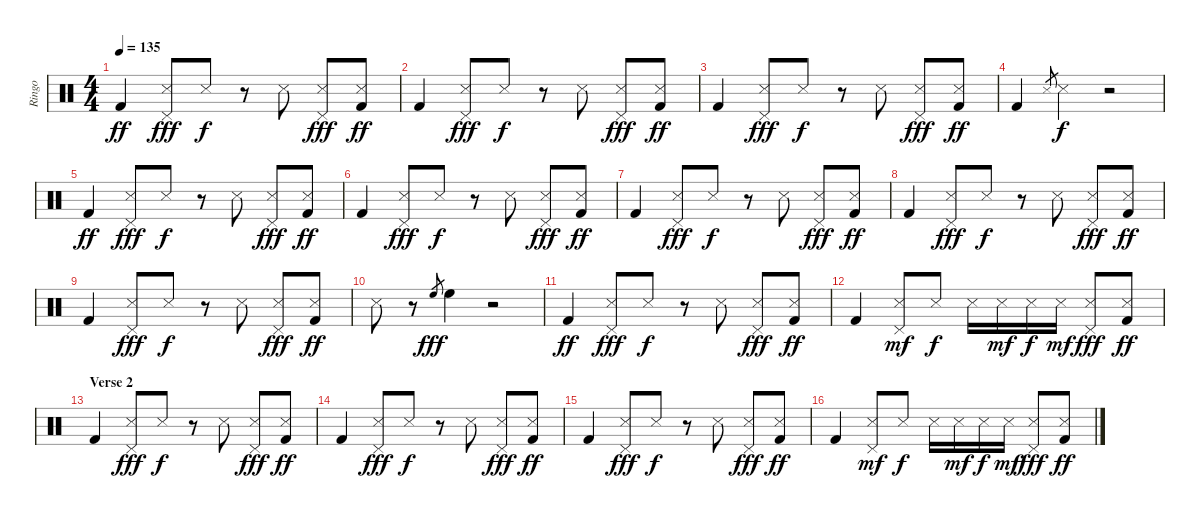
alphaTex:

\track ("Ringo" "Ringo") {instrument percussion}
\staff {score}
\articulation defaults
\ts (4 4)
\tempo 135
\clef neutral
\ks c "Kick (hit) 2".4{dy ff}
("Pedal Hi-Hat (hit)" "Snare (side stick) 3").8{dy fff} "Snare (side stick) 3".8{dy f} r.8 "Snare (side stick) 3".8 ("Pedal Hi-Hat (hit)" "Snare (side stick) 3").8{dy fff} ("Snare (side stick) 3" "Kick (hit) 2").8{dy ff} |
"Kick (hit) 2".4 ("Pedal Hi-Hat (hit)" "Snare (side stick) 3").8{dy fff} "Snare (side stick) 3".8{dy f} r.8 "Snare (side stick) 3".8 ("Pedal Hi-Hat (hit)" "Snare (side stick) 3").8{dy fff} ("Snare (side stick) 3" "Kick (hit) 2").8{dy ff} |
"Kick (hit) 2".4 ("Pedal Hi-Hat (hit)" "Snare (side stick) 3").8{dy fff} "Snare (side stick) 3".8{dy f} r.8 "Snare (side stick) 3".8 ("Pedal Hi-Hat (hit)" "Snare (side stick) 3").8{dy fff} ("Snare (side stick) 3" "Kick (hit) 2").8{dy ff} |
"Kick (hit) 2".4 "Snare (side stick) 3".8{gr} "Snare (side stick) 3".4{dy f} r.2 |
"Kick (hit) 2".4{dy ff} ("Pedal Hi-Hat (hit)" "Snare (side stick) 3").8{dy fff} "Snare (side stick) 3".8{dy f} r.8 "Snare (side stick) 3".8 ("Pedal Hi-Hat (hit)" "Snare (side stick) 3").8{dy fff} ("Snare (side stick) 3" "Kick (hit) 2").8{dy ff} |
"Kick (hit) 2".4 ("Pedal Hi-Hat (hit)" "Snare (side stick) 3").8{dy fff} "Snare (side stick) 3".8{dy f} r.8 "Snare (side stick) 3".8 ("Pedal Hi-Hat (hit)" "Snare (side stick) 3").8{dy fff} ("Snare (side stick) 3" "Kick (hit) 2").8{dy ff} |
"Kick (hit) 2".4 ("Pedal Hi-Hat (hit)" "Snare (side stick) 3").8{dy fff} "Snare (side stick) 3".8{dy f} r.8 "Snare (side stick) 3".8 ("Pedal Hi-Hat (hit)" "Snare (side stick) 3").8{dy fff} ("Snare (side stick) 3" "Kick (hit) 2").8{dy ff} |
"Kick (hit) 2".4 ("Pedal Hi-Hat (hit)" "Snare (side stick) 3").8{dy fff} "Snare (side stick) 3".8{dy f} r.8 "Snare (side stick) 3".8 ("Pedal Hi-Hat (hit)" "Snare (side stick) 3").8{dy fff} ("Snare (side stick) 3" "Kick (hit) 2").8{dy ff} |
"Kick (hit) 2".4 ("Pedal Hi-Hat (hit)" "Snare (side stick) 3").8{dy fff} "Snare (side stick) 3".8{dy f} r.8 "Snare (side stick) 3".8 ("Pedal Hi-Hat (hit)" "Snare (side stick) 3").8{dy fff} ("Snare (side stick) 3" "Kick (hit) 2").8{dy ff} |
"Snare (side stick) 3".8 r.8 "High Floor Tom (hit)".8{gr dy fff} "High Floor Tom (hit)".4 r.2 |
"Kick (hit) 2".4{dy ff} ("Pedal Hi-Hat (hit)" "Snare (side stick) 3").8{dy fff} "Snare (side stick) 3".8{dy f} r.8 "Snare (side stick) 3".8 ("Pedal Hi-Hat (hit)" "Snare (side stick) 3").8{dy fff} ("Snare (side stick) 3" "Kick (hit) 2").8{dy ff} |
"Kick (hit) 2".4 ("Pedal Hi-Hat (hit)" "Snare (side stick) 3").8{dy mf} "Snare (side stick) 3".8{dy f} "Snare (side stick) 3".16 "Snare (side stick) 3".16{dy mf} "Snare (side stick) 3".16{dy f} "Snare (side stick) 3".16{dy mf} ("Pedal Hi-Hat (hit)" "Snare (side stick) 3").8{dy fff} ("Snare (side stick) 3" "Kick (hit) 2").8{dy ff} |
\section ("" "Verse 2")
"Kick (hit) 2".4 ("Pedal Hi-Hat (hit)" "Snare (side stick) 3").8{dy fff} "Snare (side stick) 3".8{dy f} r.8 "Snare (side stick) 3".8 ("Pedal Hi-Hat (hit)" "Snare (side stick) 3").8{dy fff} ("Snare (side stick) 3" "Kick (hit) 2").8{dy ff} |
"Kick (hit) 2".4 ("Pedal Hi-Hat (hit)" "Snare (side stick) 3").8{dy fff} "Snare (side stick) 3".8{dy f} r.8 "Snare (side stick) 3".8 ("Pedal Hi-Hat (hit)" "Snare (side stick) 3").8{dy fff} ("Snare (side stick) 3" "Kick (hit) 2").8{dy ff} |
"Kick (hit) 2".4 ("Pedal Hi-Hat (hit)" "Snare (side stick) 3").8{dy fff} "Snare (side stick) 3".8{dy f} r.8 "Snare (side stick) 3".8 ("Pedal Hi-Hat (hit)" "Snare (side stick) 3").8{dy fff} ("Snare (side stick) 3" "Kick (hit) 2").8{dy ff} |
"Kick (hit) 2".4 ("Pedal Hi-Hat (hit)" "Snare (side stick) 3").8{dy mf} "Snare (side stick) 3".8{dy f} "Snare (side stick) 3".16 "Snare (side stick) 3".16{dy mf} "Snare (side stick) 3".16{dy f} "Snare (side stick) 3".16{dy mf} ("Pedal Hi-Hat (hit)" "Snare (side stick) 3").8{dy fff} ("Snare (side stick) 3" "Kick (hit) 2").8{dy ff}
